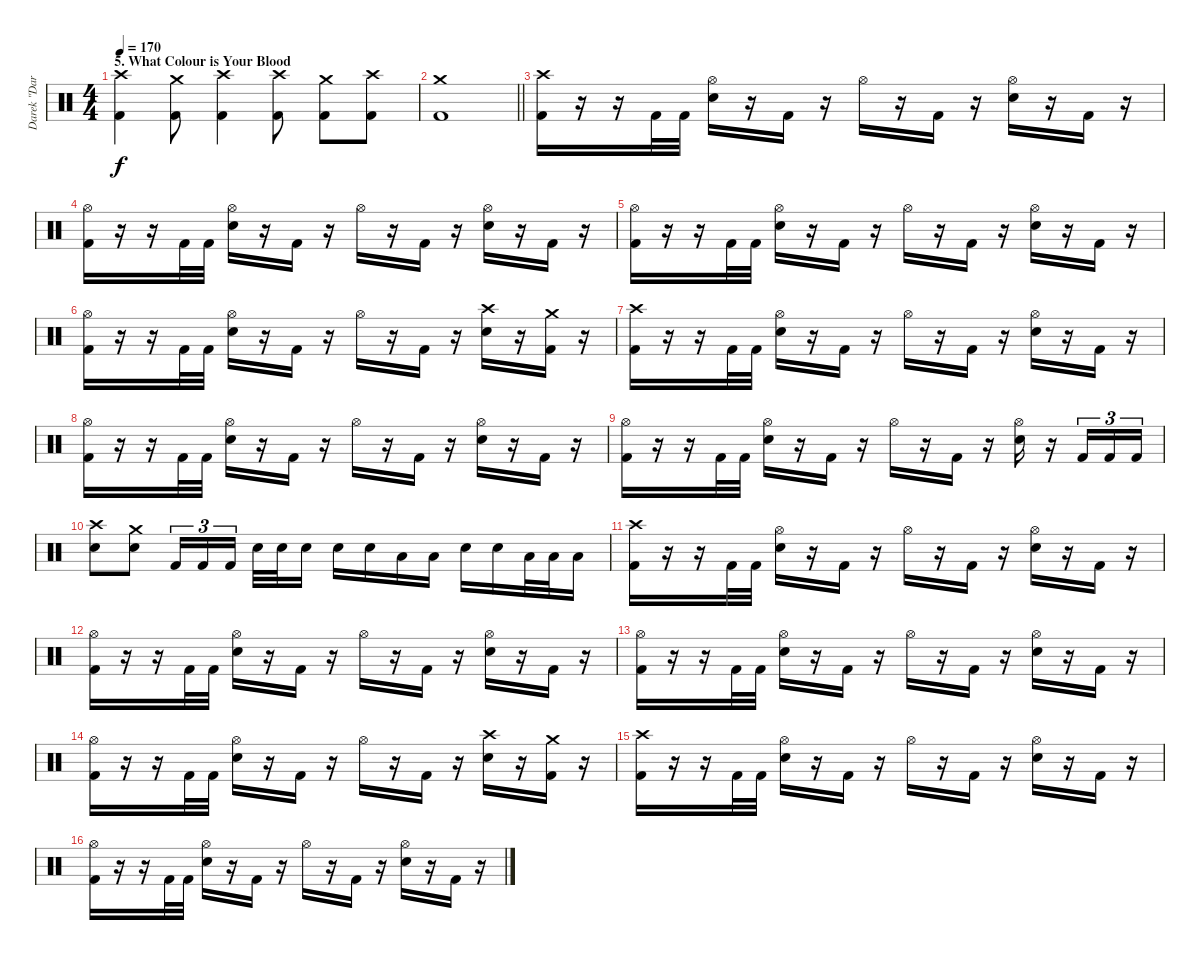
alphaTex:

\track ("Darek \"Daray\" Brzozowski " "Darek \"Dar") {instrument percussion}
\staff {score}
\articulation defaults
\ts (4 4)
\section ("" "5. What Colour is Your Blood")
\tempo 170
\clef neutral
\ks c
("Crash high (hit)" "Kick (hit) 2").4{dy f} ("Crash medium (hit)" "Kick (hit) 2").8 ("Crash high (hit)" "Kick (hit) 2").4 ("Crash high (hit)" "Kick (hit) 2").8 ("Crash medium (hit)" "Kick (hit) 2").8 ("Crash high (hit)" "Kick (hit) 2").8 |
\barLineRight lightlight
("Crash medium (hit)" "Kick (hit) 2").1 |
("Crash high (hit)" "Kick (hit) 2").16 r.16 r.16 "Kick (hit) 2".32 "Kick (hit) 2".32 ("Hi-Hat (open)" "Electric Snare (hit)").16 r.16 "Kick (hit) 2".16 r.16 "Hi-Hat (open)".16 r.16 "Kick (hit) 2".16 r.16 ("Hi-Hat (open)" "Electric Snare (hit)").16 r.16 "Kick (hit) 2".16 r.16 |
("Hi-Hat (open)" "Kick (hit) 2").16 r.16 r.16 "Kick (hit) 2".32 "Kick (hit) 2".32 ("Hi-Hat (open)" "Electric Snare (hit)").16 r.16 "Kick (hit) 2".16 r.16 "Hi-Hat (open)".16 r.16 "Kick (hit) 2".16 r.16 ("Hi-Hat (open)" "Electric Snare (hit)").16 r.16 "Kick (hit) 2".16 r.16 |
("Hi-Hat (open)" "Kick (hit) 2").16 r.16 r.16 "Kick (hit) 2".32 "Kick (hit) 2".32 ("Hi-Hat (open)" "Electric Snare (hit)").16 r.16 "Kick (hit) 2".16 r.16 "Hi-Hat (open)".16 r.16 "Kick (hit) 2".16 r.16 ("Hi-Hat (open)" "Electric Snare (hit)").16 r.16 "Kick (hit) 2".16 r.16 |
("Hi-Hat (open)" "Kick (hit) 2").16 r.16 r.16 "Kick (hit) 2".32 "Kick (hit) 2".32 ("Hi-Hat (open)" "Electric Snare (hit)").16 r.16 "Kick (hit) 2".16 r.16 "Hi-Hat (open)".16 r.16 "Kick (hit) 2".16 r.16 ("Crash high (hit)" "Electric Snare (hit)").16 r.16 ("Crash medium (hit)" "Kick (hit) 2").16 r.16 |
("Crash high (hit)" "Kick (hit) 2").16 r.16 r.16 "Kick (hit) 2".32 "Kick (hit) 2".32 ("Hi-Hat (open)" "Electric Snare (hit)").16 r.16 "Kick (hit) 2".16 r.16 "Hi-Hat (open)".16 r.16 "Kick (hit) 2".16 r.16 ("Hi-Hat (open)" "Electric Snare (hit)").16 r.16 "Kick (hit) 2".16 r.16 |
("Hi-Hat (open)" "Kick (hit) 2").16 r.16 r.16 "Kick (hit) 2".32 "Kick (hit) 2".32 ("Hi-Hat (open)" "Electric Snare (hit)").16 r.16 "Kick (hit) 2".16 r.16 "Hi-Hat (open)".16 r.16 "Kick (hit) 2".16 r.16 ("Hi-Hat (open)" "Electric Snare (hit)").16 r.16 "Kick (hit) 2".16 r.16 |
("Hi-Hat (open)" "Kick (hit) 2").16 r.16 r.16 "Kick (hit) 2".32 "Kick (hit) 2".32 ("Hi-Hat (open)" "Electric Snare (hit)").16 r.16 "Kick (hit) 2".16 r.16 "Hi-Hat (open)".16 r.16 "Kick (hit) 2".16 r.16 ("Hi-Hat (open)" "Electric Snare (hit)").16 r.16 "Kick (hit) 2".16{tu (3 2)} "Kick (hit) 2".16{tu (3 2)} "Kick (hit) 2".16{tu (3 2)} |
("Crash high (hit)" "Electric Snare (hit)").8 ("Crash medium (hit)" "Electric Snare (hit)").8 "Kick (hit) 2".16{tu (3 2)} "Kick (hit) 2".16{tu (3 2)} "Kick (hit) 2".16{tu (3 2) beam splitsecondary} "Electric Snare (hit)".32 "Electric Snare (hit)".32 "Electric Snare (hit)".16 "Electric Snare (hit)".16 "Electric Snare (hit)".16 "Low Floor Tom (hit)".16 "Low Floor Tom (hit)".16 "Electric Snare (hit)".16 "Electric Snare (hit)".16 "Low Tom (hit)".32 "Low Tom (hit)".32 "Low Tom (hit)".16 |
("Crash high (hit)" "Kick (hit) 2").16 r.16 r.16 "Kick (hit) 2".32 "Kick (hit) 2".32 ("Hi-Hat (open)" "Electric Snare (hit)").16 r.16 "Kick (hit) 2".16 r.16 "Hi-Hat (open)".16 r.16 "Kick (hit) 2".16 r.16 ("Hi-Hat (open)" "Electric Snare (hit)").16 r.16 "Kick (hit) 2".16 r.16 |
("Hi-Hat (open)" "Kick (hit) 2").16 r.16 r.16 "Kick (hit) 2".32 "Kick (hit) 2".32 ("Hi-Hat (open)" "Electric Snare (hit)").16 r.16 "Kick (hit) 2".16 r.16 "Hi-Hat (open)".16 r.16 "Kick (hit) 2".16 r.16 ("Hi-Hat (open)" "Electric Snare (hit)").16 r.16 "Kick (hit) 2".16 r.16 |
("Hi-Hat (open)" "Kick (hit) 2").16 r.16 r.16 "Kick (hit) 2".32 "Kick (hit) 2".32 ("Hi-Hat (open)" "Electric Snare (hit)").16 r.16 "Kick (hit) 2".16 r.16 "Hi-Hat (open)".16 r.16 "Kick (hit) 2".16 r.16 ("Hi-Hat (open)" "Electric Snare (hit)").16 r.16 "Kick (hit) 2".16 r.16 |
("Hi-Hat (open)" "Kick (hit) 2").16 r.16 r.16 "Kick (hit) 2".32 "Kick (hit) 2".32 ("Hi-Hat (open)" "Electric Snare (hit)").16 r.16 "Kick (hit) 2".16 r.16 "Hi-Hat (open)".16 r.16 "Kick (hit) 2".16 r.16 ("Crash high (hit)" "Electric Snare (hit)").16 r.16 ("Crash medium (hit)" "Kick (hit) 2").16 r.16 |
("Crash high (hit)" "Kick (hit) 2").16 r.16 r.16 "Kick (hit) 2".32 "Kick (hit) 2".32 ("Hi-Hat (open)" "Electric Snare (hit)").16 r.16 "Kick (hit) 2".16 r.16 "Hi-Hat (open)".16 r.16 "Kick (hit) 2".16 r.16 ("Hi-Hat (open)" "Electric Snare (hit)").16 r.16 "Kick (hit) 2".16 r.16 |
("Hi-Hat (open)" "Kick (hit) 2").16 r.16 r.16 "Kick (hit) 2".32 "Kick (hit) 2".32 ("Hi-Hat (open)" "Electric Snare (hit)").16 r.16 "Kick (hit) 2".16 r.16 "Hi-Hat (open)".16 r.16 "Kick (hit) 2".16 r.16 ("Hi-Hat (open)" "Electric Snare (hit)").16 r.16 "Kick (hit) 2".16 r.16
